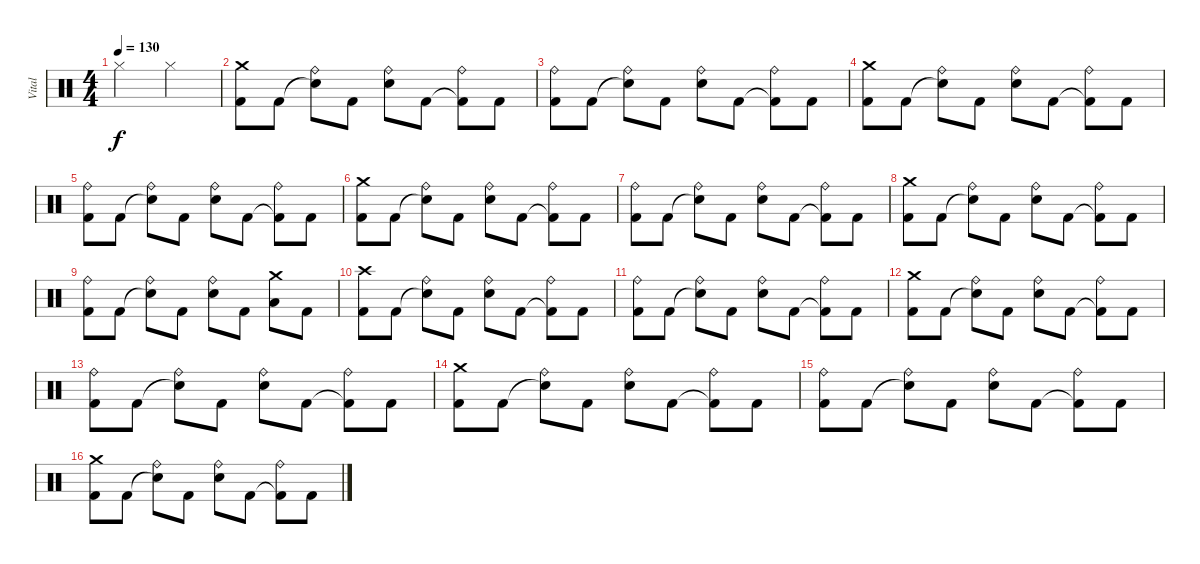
\track ("Vital" "Vital") {instrument percussion}
\staff {score}
\articulation defaults
\ts (4 4)
\tempo 130
\clef neutral
\ks c "Hi-Hat (closed)".2{dy f} "Hi-Hat (closed)".2
|
("Kick (hit) 2" "Crash medium (hit)").8 "Kick (hit) 2".8 ("Snare (hit)"{t} "Ride (bell)").8 "Kick (hit) 2".8 ("Snare (hit) 2" "Ride (bell)").8 "Kick (hit) 2".8 ("Kick (hit) 2"{t} "Ride (bell)").8 "Kick (hit) 2".8 |
("Kick (hit) 2" "Ride (bell)").8 "Kick (hit) 2".8 ("Snare (hit)"{t} "Ride (bell)").8 "Kick (hit) 2".8 ("Snare (hit) 2" "Ride (bell)").8 "Kick (hit) 2".8 ("Kick (hit) 2"{t} "Ride (bell)").8 "Kick (hit) 2".8 |
("Kick (hit) 2" "Crash medium (hit)").8 "Kick (hit) 2".8 ("Snare (hit)"{t} "Ride (bell)").8 "Kick (hit) 2".8 ("Snare (hit) 2" "Ride (bell)").8 "Kick (hit) 2".8 ("Kick (hit) 2"{t} "Ride (bell)").8 "Kick (hit) 2".8 |
("Kick (hit) 2" "Ride (bell)").8 "Kick (hit) 2".8 ("Snare (hit)"{t} "Ride (bell)").8 "Kick (hit) 2".8 ("Snare (hit) 2" "Ride (bell)").8 "Kick (hit) 2".8 ("Kick (hit) 2"{t} "Ride (bell)").8 "Kick (hit) 2".8 |
("Kick (hit) 2" "Crash medium (hit)").8 "Kick (hit) 2".8 ("Snare (hit)"{t} "Ride (bell)").8 "Kick (hit) 2".8 ("Snare (hit) 2" "Ride (bell)").8 "Kick (hit) 2".8 ("Kick (hit) 2"{t} "Ride (bell)").8 "Kick (hit) 2".8 |
("Kick (hit) 2" "Ride (bell)").8 "Kick (hit) 2".8 ("Snare (hit)"{t} "Ride (bell)").8 "Kick (hit) 2".8 ("Snare (hit) 2" "Ride (bell)").8 "Kick (hit) 2".8 ("Kick (hit) 2"{t} "Ride (bell)").8 "Kick (hit) 2".8 |
("Kick (hit) 2" "Crash medium (hit)").8 "Kick (hit) 2".8 ("Snare (hit)"{t} "Ride (bell)").8 "Kick (hit) 2".8 ("Snare (hit) 2" "Ride (bell)").8 "Kick (hit) 2".8 ("Kick (hit) 2"{t} "Ride (bell)").8 "Kick (hit) 2".8 |
("Kick (hit) 2" "Ride (bell)").8 "Kick (hit) 2".8 ("Snare (hit)"{t} "Ride (bell)").8 "Kick (hit) 2".8 ("Snare (hit) 2" "Ride (bell)").8 "Kick (hit) 2".8 ("Low Floor Tom (hit)" "Crash medium (hit)").8 "Kick (hit) 2".8 |
("Kick (hit) 2" "Crash high (hit)").8 "Kick (hit) 2".8 ("Snare (hit)"{t} "Ride (bell)").8 "Kick (hit) 2".8 ("Snare (hit) 2" "Ride (bell)").8 "Kick (hit) 2".8 ("Kick (hit) 2"{t} "Ride (bell)").8 "Kick (hit) 2".8 |
("Kick (hit) 2" "Ride (bell)").8 "Kick (hit) 2".8 ("Snare (hit)"{t} "Ride (bell)").8 "Kick (hit) 2".8 ("Snare (hit) 2" "Ride (bell)").8 "Kick (hit) 2".8 ("Kick (hit) 2"{t} "Ride (bell)").8 "Kick (hit) 2".8 |
("Kick (hit) 2" "Crash medium (hit)").8 "Kick (hit) 2".8 ("Snare (hit)"{t} "Ride (bell)").8 "Kick (hit) 2".8 ("Snare (hit) 2" "Ride (bell)").8 "Kick (hit) 2".8 ("Kick (hit) 2"{t} "Ride (bell)").8 "Kick (hit) 2".8 |
("Kick (hit) 2" "Ride (bell)").8 "Kick (hit) 2".8 ("Snare (hit)"{t} "Ride (bell)").8 "Kick (hit) 2".8 ("Snare (hit) 2" "Ride (bell)").8 "Kick (hit) 2".8 ("Kick (hit) 2"{t} "Ride (bell)").8 "Kick (hit) 2".8 |
("Kick (hit) 2" "Crash medium (hit)").8 "Kick (hit) 2".8 ("Snare (hit)"{t} "Ride (bell)").8 "Kick (hit) 2".8 ("Snare (hit) 2" "Ride (bell)").8 "Kick (hit) 2".8 ("Kick (hit) 2"{t} "Ride (bell)").8 "Kick (hit) 2".8 |
("Kick (hit) 2" "Ride (bell)").8 "Kick (hit) 2".8 ("Snare (hit)"{t} "Ride (bell)").8 "Kick (hit) 2".8 ("Snare (hit) 2" "Ride (bell)").8 "Kick (hit) 2".8 ("Kick (hit) 2"{t} "Ride (bell)").8 "Kick (hit) 2".8 |
("Kick (hit) 2" "Crash medium (hit)").8 "Kick (hit) 2".8 ("Snare (hit)"{t} "Ride (bell)").8 "Kick (hit) 2".8 ("Snare (hit) 2" "Ride (bell)").8 "Kick (hit) 2".8 ("Kick (hit) 2"{t} "Ride (bell)").8 "Kick (hit) 2".8
